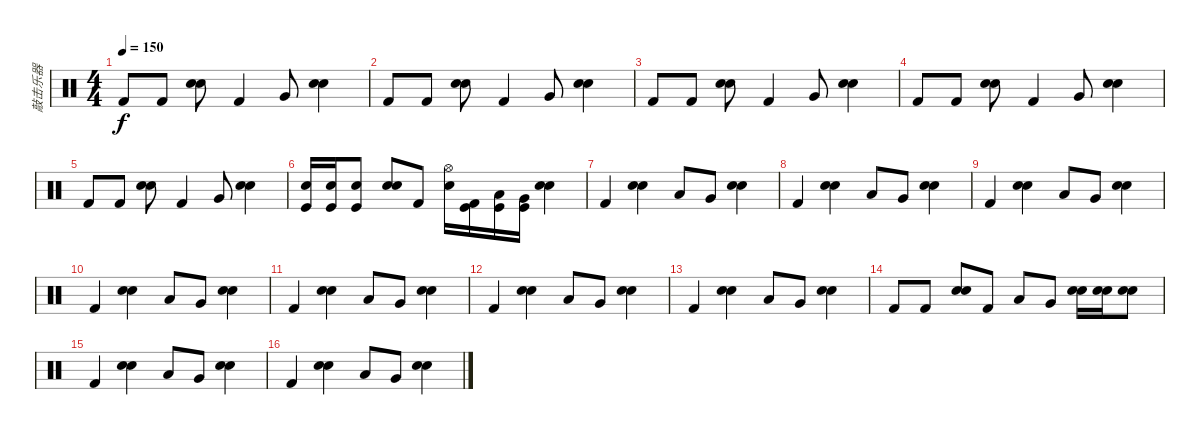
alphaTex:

\track ("敲击乐器" "敲击乐器") {instrument percussion}
\staff {score}
\articulation defaults
\ts (4 4)
\tempo 150
\clef neutral
\ks c "Kick (hit) 2".8{dy f} "Kick (hit) 2".8
("Electric Snare (hit)" "Snare (hit) 2").8 "Kick (hit) 2".4 "Very Low Tom (hit)".8 ("Electric Snare (hit)" "Snare (hit) 2").4 |
"Kick (hit) 2".8 "Kick (hit) 2".8 ("Electric Snare (hit)" "Snare (hit) 2").8 "Kick (hit) 2".4 "Very Low Tom (hit)".8 ("Electric Snare (hit)" "Snare (hit) 2").4 |
"Kick (hit) 2".8 "Kick (hit) 2".8 ("Electric Snare (hit)" "Snare (hit) 2").8 "Kick (hit) 2".4 "Very Low Tom (hit)".8 ("Electric Snare (hit)" "Snare (hit) 2").4 |
"Kick (hit) 2".8 "Kick (hit) 2".8 ("Electric Snare (hit)" "Snare (hit) 2").8 "Kick (hit) 2".4 "Very Low Tom (hit)".8 ("Electric Snare (hit)" "Snare (hit) 2").4 |
"Kick (hit) 2".8 "Kick (hit) 2".8 ("Electric Snare (hit)" "Snare (hit) 2").8 "Kick (hit) 2".4 "Very Low Tom (hit)".8 ("Electric Snare (hit)" "Snare (hit) 2").4 |
("Snare (hit) 2" "Kick (hit)").16 ("Snare (hit) 2" "Kick (hit)").16 ("Snare (hit) 2" "Kick (hit)").8 ("Electric Snare (hit)" "Snare (hit) 2").8 "Kick (hit) 2".8 ("Hi-Hat (open)" "Snare (hit) 2").16 ("Kick (hit) 2" "Kick (hit)").16 ("Low Tom (hit)" "Kick (hit)").16 ("Very Low Tom (hit)" "Kick (hit)").16 ("Electric Snare (hit)" "Snare (hit) 2").4 |
"Kick (hit) 2".4 ("Electric Snare (hit)" "Snare (hit) 2").4 "Low Tom (hit)".8 "Very Low Tom (hit)".8 ("Electric Snare (hit)" "Snare (hit) 2").4 |
"Kick (hit) 2".4 ("Electric Snare (hit)" "Snare (hit) 2").4 "Low Tom (hit)".8 "Very Low Tom (hit)".8 ("Electric Snare (hit)" "Snare (hit) 2").4 |
"Kick (hit) 2".4 ("Electric Snare (hit)" "Snare (hit) 2").4 "Low Tom (hit)".8 "Very Low Tom (hit)".8 ("Electric Snare (hit)" "Snare (hit) 2").4 |
"Kick (hit) 2".4 ("Electric Snare (hit)" "Snare (hit) 2").4 "Low Tom (hit)".8 "Very Low Tom (hit)".8 ("Electric Snare (hit)" "Snare (hit) 2").4 |
"Kick (hit) 2".4 ("Electric Snare (hit)" "Snare (hit) 2").4 "Low Tom (hit)".8 "Very Low Tom (hit)".8 ("Electric Snare (hit)" "Snare (hit) 2").4 |
"Kick (hit) 2".4 ("Electric Snare (hit)" "Snare (hit) 2").4 "Low Tom (hit)".8 "Very Low Tom (hit)".8 ("Electric Snare (hit)" "Snare (hit) 2").4 |
"Kick (hit) 2".4 ("Electric Snare (hit)" "Snare (hit) 2").4 "Low Tom (hit)".8 "Very Low Tom (hit)".8 ("Electric Snare (hit)" "Snare (hit) 2").4 |
"Kick (hit) 2".8 "Kick (hit) 2".8 ("Electric Snare (hit)" "Snare (hit) 2").8 "Kick (hit) 2".8 "Low Tom (hit)".8 "Very Low Tom (hit)".8 ("Electric Snare (hit)" "Snare (hit) 2").16 ("Electric Snare (hit)" "Snare (hit) 2").16 ("Electric Snare (hit)" "Snare (hit) 2").8 |
"Kick (hit) 2".4 ("Electric Snare (hit)" "Snare (hit) 2").4 "Low Tom (hit)".8 "Very Low Tom (hit)".8 ("Electric Snare (hit)" "Snare (hit) 2").4 |
"Kick (hit) 2".4 ("Electric Snare (hit)" "Snare (hit) 2").4 "Low Tom (hit)".8 "Very Low Tom (hit)".8 ("Electric Snare (hit)" "Snare (hit) 2").4
